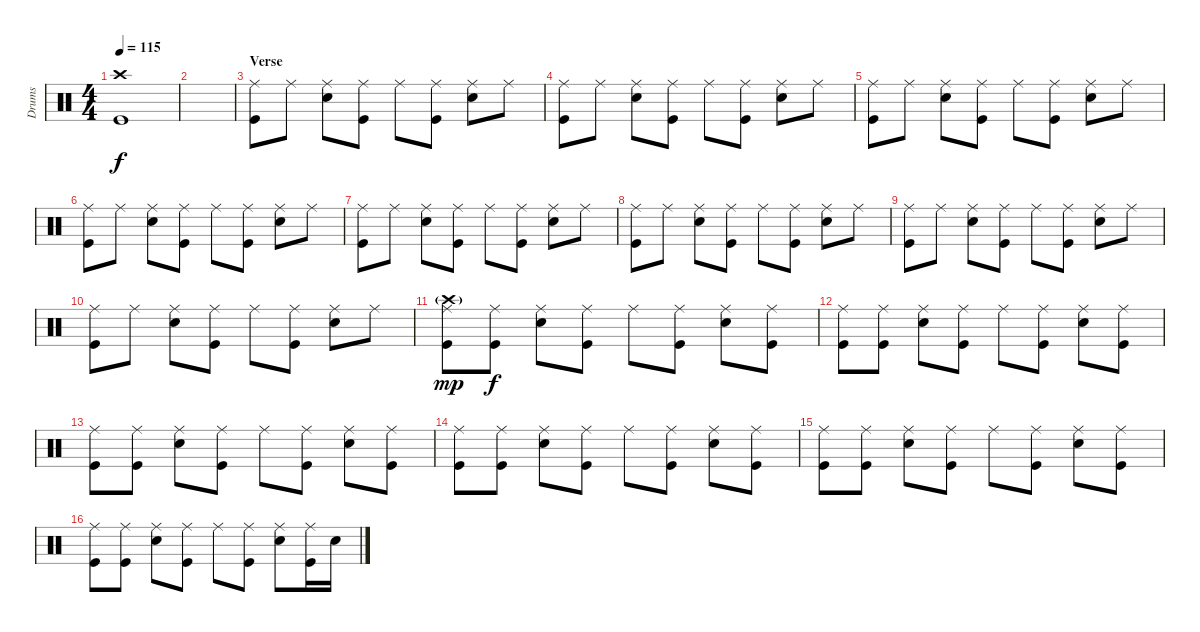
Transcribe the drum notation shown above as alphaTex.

\track ("Drums" "Drums") {instrument percussion}
\staff {score}
\articulation defaults
\ts (4 4)
\tempo 115
\clef neutral
\ks c
("Crash high (hit)" "Kick (hit)").1{dy f} |
|
\section ("" "Verse")
("Ride (middle)" "Kick (hit)").8 "Ride (middle)".8 ("Ride (middle)" "Snare (hit) 2").8 ("Ride (middle)" "Kick (hit)").8 "Ride (middle)".8 ("Ride (middle)" "Kick (hit)").8 ("Ride (middle)" "Snare (hit) 2").8 "Ride (middle)".8 |
("Ride (middle)" "Kick (hit)").8 "Ride (middle)".8 ("Ride (middle)" "Snare (hit) 2").8 ("Ride (middle)" "Kick (hit)").8 "Ride (middle)".8 ("Ride (middle)" "Kick (hit)").8 ("Ride (middle)" "Snare (hit) 2").8 "Ride (middle)".8 |
("Ride (middle)" "Kick (hit)").8 "Ride (middle)".8 ("Ride (middle)" "Snare (hit) 2").8 ("Ride (middle)" "Kick (hit)").8 "Ride (middle)".8 ("Ride (middle)" "Kick (hit)").8 ("Ride (middle)" "Snare (hit) 2").8 "Ride (middle)".8 |
("Ride (middle)" "Kick (hit)").8 "Ride (middle)".8 ("Ride (middle)" "Snare (hit) 2").8 ("Ride (middle)" "Kick (hit)").8 "Ride (middle)".8 ("Ride (middle)" "Kick (hit)").8 ("Ride (middle)" "Snare (hit) 2").8 "Ride (middle)".8 |
("Ride (middle)" "Kick (hit)").8 "Ride (middle)".8 ("Ride (middle)" "Snare (hit) 2").8 ("Ride (middle)" "Kick (hit)").8 "Ride (middle)".8 ("Ride (middle)" "Kick (hit)").8 ("Ride (middle)" "Snare (hit) 2").8 "Ride (middle)".8 |
("Ride (middle)" "Kick (hit)").8 "Ride (middle)".8 ("Ride (middle)" "Snare (hit) 2").8 ("Ride (middle)" "Kick (hit)").8 "Ride (middle)".8 ("Ride (middle)" "Kick (hit)").8 ("Ride (middle)" "Snare (hit) 2").8 "Ride (middle)".8 |
("Ride (middle)" "Kick (hit)").8 "Ride (middle)".8 ("Ride (middle)" "Snare (hit) 2").8 ("Ride (middle)" "Kick (hit)").8 "Ride (middle)".8 ("Ride (middle)" "Kick (hit)").8 ("Ride (middle)" "Snare (hit) 2").8 "Ride (middle)".8 |
("Ride (middle)" "Kick (hit)").8 "Ride (middle)".8 ("Ride (middle)" "Snare (hit) 2").8 ("Ride (middle)" "Kick (hit)").8 "Ride (middle)".8 ("Ride (middle)" "Kick (hit)").8 ("Ride (middle)" "Snare (hit) 2").8 "Ride (middle)".8 |
\section ("" "")
("Ride (middle)" "Crash high (hit)"{g} "Kick (hit)").8{dy mp} ("Ride (middle)" "Kick (hit)").8{dy f} ("Ride (middle)" "Snare (hit) 2").8 ("Ride (middle)" "Kick (hit)").8 "Ride (middle)".8 ("Ride (middle)" "Kick (hit)").8 ("Ride (middle)" "Snare (hit) 2").8 ("Ride (middle)" "Kick (hit)").8 |
("Ride (middle)" "Kick (hit)").8 ("Ride (middle)" "Kick (hit)").8 ("Ride (middle)" "Snare (hit) 2").8 ("Ride (middle)" "Kick (hit)").8 "Ride (middle)".8 ("Ride (middle)" "Kick (hit)").8 ("Ride (middle)" "Snare (hit) 2").8 ("Ride (middle)" "Kick (hit)").8 |
("Ride (middle)" "Kick (hit)").8 ("Ride (middle)" "Kick (hit)").8 ("Ride (middle)" "Snare (hit) 2").8 ("Ride (middle)" "Kick (hit)").8 "Ride (middle)".8 ("Ride (middle)" "Kick (hit)").8 ("Ride (middle)" "Snare (hit) 2").8 ("Ride (middle)" "Kick (hit)").8 |
("Ride (middle)" "Kick (hit)").8 ("Ride (middle)" "Kick (hit)").8 ("Ride (middle)" "Snare (hit) 2").8 ("Ride (middle)" "Kick (hit)").8 "Ride (middle)".8 ("Ride (middle)" "Kick (hit)").8 ("Ride (middle)" "Snare (hit) 2").8 ("Ride (middle)" "Kick (hit)").8 |
("Ride (middle)" "Kick (hit)").8 ("Ride (middle)" "Kick (hit)").8 ("Ride (middle)" "Snare (hit) 2").8 ("Ride (middle)" "Kick (hit)").8 "Ride (middle)".8 ("Ride (middle)" "Kick (hit)").8 ("Ride (middle)" "Snare (hit) 2").8 ("Ride (middle)" "Kick (hit)").8 |
("Ride (middle)" "Kick (hit)").8 ("Ride (middle)" "Kick (hit)").8 ("Ride (middle)" "Snare (hit) 2").8 ("Ride (middle)" "Kick (hit)").8 "Ride (middle)".8 ("Ride (middle)" "Kick (hit)").8 ("Ride (middle)" "Snare (hit) 2").8 ("Ride (middle)" "Kick (hit)").16 "Snare (hit) 2".16
